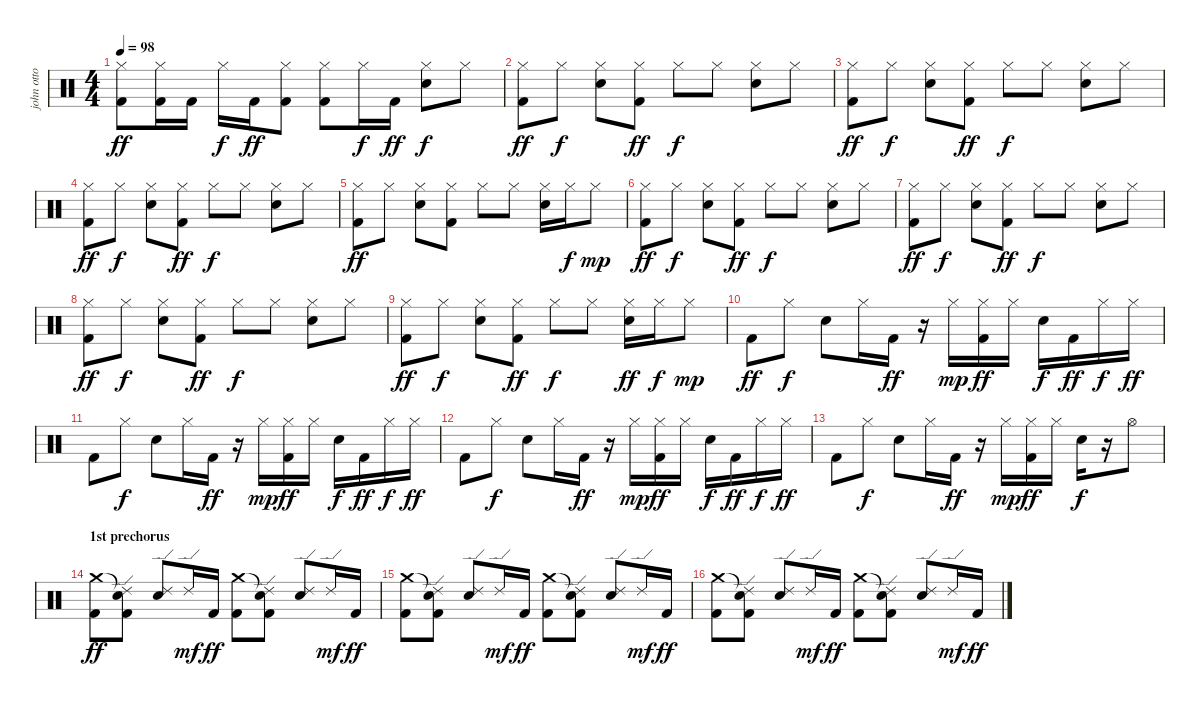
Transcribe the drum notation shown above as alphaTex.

\track ("john otto" "john otto") {instrument percussion}
\staff {score}
\articulation defaults
\ts (4 4)
\tempo 98
\clef neutral
\ks c
("Hi-Hat (closed)" "Kick (hit) 2").8{dy ff} ("Hi-Hat (closed)" "Kick (hit) 2").16 "Kick (hit) 2".16 "Hi-Hat (closed)".16{dy f} "Kick (hit) 2".16{dy ff} ("Hi-Hat (closed)" "Kick (hit) 2").8 ("Hi-Hat (closed)" "Kick (hit) 2").8 "Hi-Hat (closed)".16{dy f} "Kick (hit) 2".16{dy ff} ("Hi-Hat (closed)" "Snare (hit) 2").8{dy f} "Hi-Hat (closed)".8 |
("Hi-Hat (closed)" "Kick (hit) 2").8{dy ff} "Hi-Hat (closed)".8{dy f} ("Hi-Hat (closed)" "Snare (hit) 2").8 ("Hi-Hat (closed)" "Kick (hit) 2").8{dy ff} "Hi-Hat (closed)".8{dy f} "Hi-Hat (closed)".8 ("Hi-Hat (closed)" "Snare (hit) 2").8 "Hi-Hat (closed)".8 |
("Hi-Hat (closed)" "Kick (hit) 2").8{dy ff} "Hi-Hat (closed)".8{dy f} ("Hi-Hat (closed)" "Snare (hit) 2").8 ("Hi-Hat (closed)" "Kick (hit) 2").8{dy ff} "Hi-Hat (closed)".8{dy f} "Hi-Hat (closed)".8 ("Hi-Hat (closed)" "Snare (hit) 2").8 "Hi-Hat (closed)".8 |
("Hi-Hat (closed)" "Kick (hit) 2").8{dy ff} "Hi-Hat (closed)".8{dy f} ("Hi-Hat (closed)" "Snare (hit) 2").8 ("Hi-Hat (closed)" "Kick (hit) 2").8{dy ff} "Hi-Hat (closed)".8{dy f} "Hi-Hat (closed)".8 ("Hi-Hat (closed)" "Snare (hit) 2").8 "Hi-Hat (closed)".8 |
("Hi-Hat (closed)" "Kick (hit) 2").8{dy ff} "Hi-Hat (closed)".8 ("Hi-Hat (closed)" "Snare (hit) 2").8 ("Hi-Hat (closed)" "Kick (hit) 2").8 "Hi-Hat (closed)".8 "Hi-Hat (closed)".8 ("Hi-Hat (closed)" "Snare (hit) 2").16 "Hi-Hat (closed)".16{dy f} "Hi-Hat (closed)".8{dy mp} |
("Hi-Hat (closed)" "Kick (hit) 2").8{dy ff} "Hi-Hat (closed)".8{dy f} ("Hi-Hat (closed)" "Snare (hit) 2").8 ("Hi-Hat (closed)" "Kick (hit) 2").8{dy ff} "Hi-Hat (closed)".8{dy f} "Hi-Hat (closed)".8 ("Hi-Hat (closed)" "Snare (hit) 2").8 "Hi-Hat (closed)".8 |
("Hi-Hat (closed)" "Kick (hit) 2").8{dy ff} "Hi-Hat (closed)".8{dy f} ("Hi-Hat (closed)" "Snare (hit) 2").8 ("Hi-Hat (closed)" "Kick (hit) 2").8{dy ff} "Hi-Hat (closed)".8{dy f} "Hi-Hat (closed)".8 ("Hi-Hat (closed)" "Snare (hit) 2").8 "Hi-Hat (closed)".8 |
("Hi-Hat (closed)" "Kick (hit) 2").8{dy ff} "Hi-Hat (closed)".8{dy f} ("Hi-Hat (closed)" "Snare (hit) 2").8 ("Hi-Hat (closed)" "Kick (hit) 2").8{dy ff} "Hi-Hat (closed)".8{dy f} "Hi-Hat (closed)".8 ("Hi-Hat (closed)" "Snare (hit) 2").8 "Hi-Hat (closed)".8 |
("Hi-Hat (closed)" "Kick (hit) 2").8{dy ff} "Hi-Hat (closed)".8{dy f} ("Hi-Hat (closed)" "Snare (hit) 2").8 ("Hi-Hat (closed)" "Kick (hit) 2").8{dy ff} "Hi-Hat (closed)".8{dy f} "Hi-Hat (closed)".8 ("Hi-Hat (closed)" "Snare (hit) 2").16{dy ff} "Hi-Hat (closed)".16{dy f} "Hi-Hat (closed)".8{dy mp} |
"Kick (hit) 2".8{dy ff} "Hi-Hat (closed)".8{dy f} "Snare (hit) 2".8 "Hi-Hat (closed)".16 "Kick (hit) 2".16{dy ff} r.16 "Hi-Hat (closed)".16{dy mp} ("Hi-Hat (closed)" "Kick (hit) 2").16{dy ff} "Hi-Hat (closed)".16 "Snare (hit) 2".16{dy f} "Kick (hit) 2".16{dy ff} "Hi-Hat (closed)".16{dy f} "Hi-Hat (closed)".16{dy ff} |
"Kick (hit) 2".8 "Hi-Hat (closed)".8{dy f} "Snare (hit) 2".8 "Hi-Hat (closed)".16 "Kick (hit) 2".16{dy ff} r.16 "Hi-Hat (closed)".16{dy mp} ("Hi-Hat (closed)" "Kick (hit) 2").16{dy ff} "Hi-Hat (closed)".16 "Snare (hit) 2".16{dy f} "Kick (hit) 2".16{dy ff} "Hi-Hat (closed)".16{dy f} "Hi-Hat (closed)".16{dy ff} |
"Kick (hit) 2".8 "Hi-Hat (closed)".8{dy f} "Snare (hit) 2".8 "Hi-Hat (closed)".16 "Kick (hit) 2".16{dy ff} r.16 "Hi-Hat (closed)".16{dy mp} ("Hi-Hat (closed)" "Kick (hit) 2").16{dy ff} "Hi-Hat (closed)".16 "Snare (hit) 2".16{dy f} "Kick (hit) 2".16{dy ff} "Hi-Hat (closed)".16{dy f} "Hi-Hat (closed)".16{dy ff} |
"Kick (hit) 2".8 "Hi-Hat (closed)".8{dy f} "Snare (hit) 2".8 "Hi-Hat (closed)".16 "Kick (hit) 2".16{dy ff} r.16 "Hi-Hat (closed)".16{dy mp} ("Hi-Hat (closed)" "Kick (hit) 2").16{dy ff} "Hi-Hat (closed)".16 "Snare (hit) 2".16{dy f} r.16 "Hi-Hat (open)".8 |
\section ("" "1st prechorus")
("Crash medium (hit)" "Kick (hit) 2").8{dy ff} ("Snare (hit)"{t} "Ride (edge) 2" "Kick (hit) 2").8 ("Ride (edge) 2" "Snare (hit) 2").8 "Ride (edge) 2".16{dy mf} "Kick (hit) 2".16{dy ff} ("Crash medium (hit)" "Kick (hit) 2").8 ("Snare (hit)"{t} "Ride (edge) 2" "Kick (hit) 2").8 ("Ride (edge) 2" "Snare (hit) 2").8 "Ride (edge) 2".16{dy mf} "Kick (hit) 2".16{dy ff} |
("Crash medium (hit)" "Kick (hit) 2").8 ("Snare (hit)"{t} "Ride (edge) 2" "Kick (hit) 2").8 ("Ride (edge) 2" "Snare (hit) 2").8 "Ride (edge) 2".16{dy mf} "Kick (hit) 2".16{dy ff} ("Crash medium (hit)" "Kick (hit) 2").8 ("Snare (hit)"{t} "Ride (edge) 2" "Kick (hit) 2").8 ("Ride (edge) 2" "Snare (hit) 2").8 "Ride (edge) 2".16{dy mf} "Kick (hit) 2".16{dy ff} |
("Crash medium (hit)" "Kick (hit) 2").8 ("Snare (hit)"{t} "Ride (edge) 2" "Kick (hit) 2").8 ("Ride (edge) 2" "Snare (hit) 2").8 "Ride (edge) 2".16{dy mf} "Kick (hit) 2".16{dy ff} ("Crash medium (hit)" "Kick (hit) 2").8 ("Snare (hit)"{t} "Ride (edge) 2" "Kick (hit) 2").8 ("Ride (edge) 2" "Snare (hit) 2").8 "Ride (edge) 2".16{dy mf} "Kick (hit) 2".16{dy ff}
